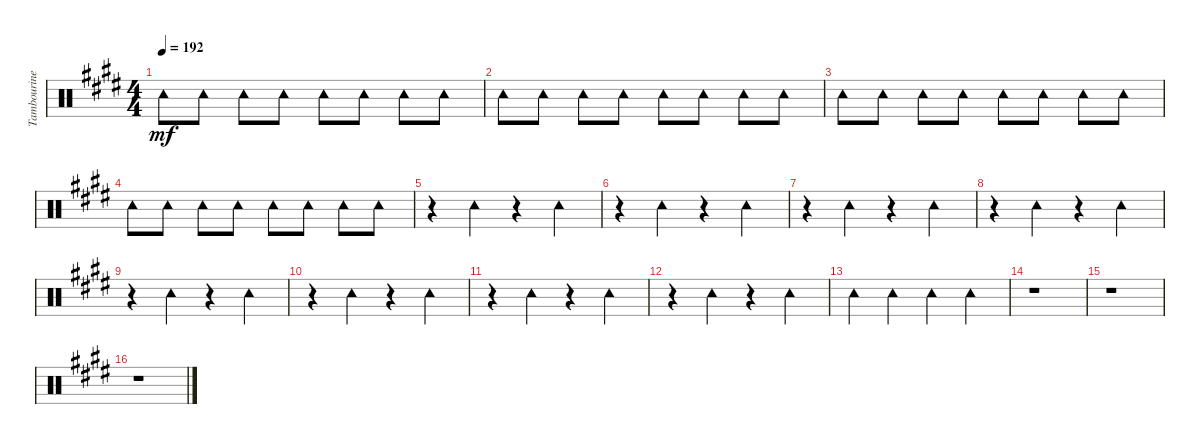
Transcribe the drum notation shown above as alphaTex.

\track ("Tambourine" "Tambourine") {instrument percussion}
\staff {score}
\articulation defaults
\ts (4 4)
\tempo 192
\clef neutral
\ks e "Tambourine (hit)".8{dy mf} "Tambourine (hit)".8 "Tambourine (hit)".8 "Tambourine (hit)".8 "Tambourine (hit)".8 "Tambourine (hit)".8 "Tambourine (hit)".8 "Tambourine (hit)".8
|
"Tambourine (hit)".8 "Tambourine (hit)".8 "Tambourine (hit)".8 "Tambourine (hit)".8 "Tambourine (hit)".8 "Tambourine (hit)".8 "Tambourine (hit)".8 "Tambourine (hit)".8 |
"Tambourine (hit)".8 "Tambourine (hit)".8 "Tambourine (hit)".8 "Tambourine (hit)".8 "Tambourine (hit)".8 "Tambourine (hit)".8 "Tambourine (hit)".8 "Tambourine (hit)".8 |
"Tambourine (hit)".8 "Tambourine (hit)".8 "Tambourine (hit)".8 "Tambourine (hit)".8 "Tambourine (hit)".8 "Tambourine (hit)".8 "Tambourine (hit)".8 "Tambourine (hit)".8 |
r.4 "Tambourine (hit)".4 r.4 "Tambourine (hit)".4 |
r.4 "Tambourine (hit)".4 r.4 "Tambourine (hit)".4 |
r.4 "Tambourine (hit)".4 r.4 "Tambourine (hit)".4 |
r.4 "Tambourine (hit)".4 r.4 "Tambourine (hit)".4 |
r.4 "Tambourine (hit)".4 r.4 "Tambourine (hit)".4 |
r.4 "Tambourine (hit)".4 r.4 "Tambourine (hit)".4 |
r.4 "Tambourine (hit)".4 r.4 "Tambourine (hit)".4 |
r.4 "Tambourine (hit)".4 r.4 "Tambourine (hit)".4 |
"Tambourine (hit)".4 "Tambourine (hit)".4 "Tambourine (hit)".4 "Tambourine (hit)".4 |
r.1 |
r.1 |
r.1
